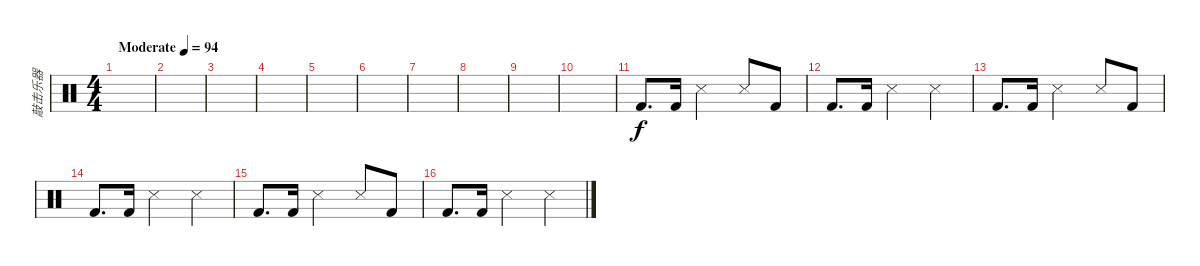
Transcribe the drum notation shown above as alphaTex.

\track ("敲击乐器" "敲击乐器") {instrument percussion}
\staff {score}
\articulation defaults
\ts (4 4)
\tempo (94 "Moderate")
\clef neutral
\ks c
|
|
|
|
|
|
|
|
|
|
"Kick (hit) 2".8{d} "Kick (hit) 2".16 "Snare (side stick) 3".2 "Snare (side stick) 3".8 "Kick (hit) 2".8 |
"Kick (hit) 2".8{d} "Kick (hit) 2".16 "Snare (side stick) 3".2 "Snare (side stick) 3".4 |
"Kick (hit) 2".8{d} "Kick (hit) 2".16 "Snare (side stick) 3".2 "Snare (side stick) 3".8 "Kick (hit) 2".8 |
"Kick (hit) 2".8{d} "Kick (hit) 2".16 "Snare (side stick) 3".2 "Snare (side stick) 3".4 |
"Kick (hit) 2".8{d} "Kick (hit) 2".16 "Snare (side stick) 3".2 "Snare (side stick) 3".8 "Kick (hit) 2".8 |
"Kick (hit) 2".8{d} "Kick (hit) 2".16 "Snare (side stick) 3".2 "Snare (side stick) 3".4
